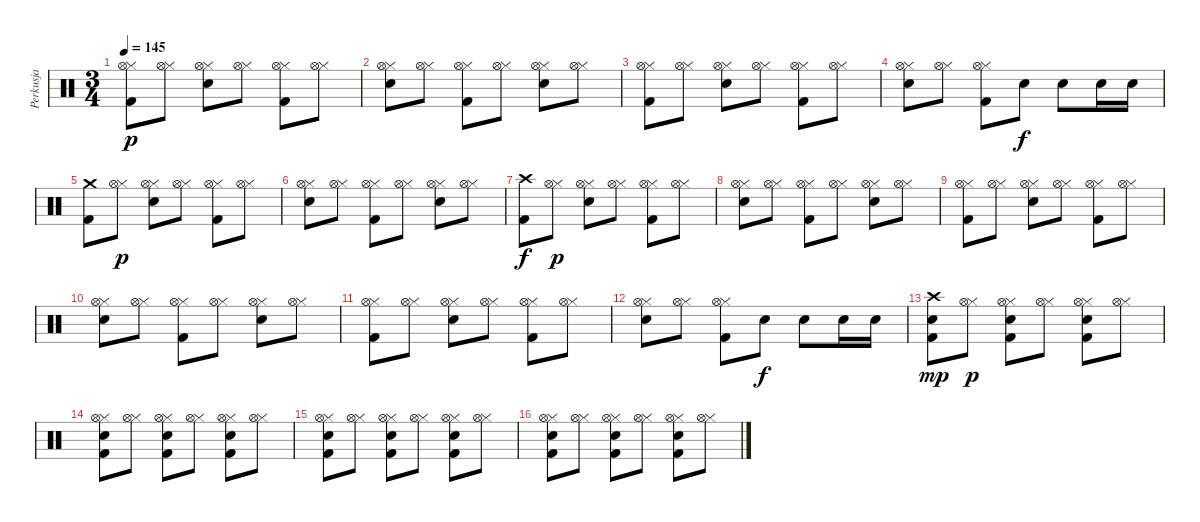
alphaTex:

\track ("Perkusja" "Perkusja") {instrument percussion}
\staff {score}
\articulation defaults
\ts (3 4)
\tempo 145
\clef neutral
\ks c
("Kick (hit) 2" "Hi-Hat (closed)" "Hi-Hat (open)").8{dy p} ("Hi-Hat (closed)" "Hi-Hat (open)").8 ("Electric Snare (hit)" "Hi-Hat (closed)" "Hi-Hat (open)").8 ("Hi-Hat (closed)" "Hi-Hat (open)").8 ("Kick (hit) 2" "Hi-Hat (closed)" "Hi-Hat (open)").8 ("Hi-Hat (closed)" "Hi-Hat (open)").8 |
("Electric Snare (hit)" "Hi-Hat (closed)" "Hi-Hat (open)").8 ("Hi-Hat (closed)" "Hi-Hat (open)").8 ("Kick (hit) 2" "Hi-Hat (closed)" "Hi-Hat (open)").8 ("Hi-Hat (closed)" "Hi-Hat (open)").8 ("Electric Snare (hit)" "Hi-Hat (closed)" "Hi-Hat (open)").8 ("Hi-Hat (closed)" "Hi-Hat (open)").8 |
("Kick (hit) 2" "Hi-Hat (closed)" "Hi-Hat (open)").8 ("Hi-Hat (closed)" "Hi-Hat (open)").8 ("Electric Snare (hit)" "Hi-Hat (closed)" "Hi-Hat (open)").8 ("Hi-Hat (closed)" "Hi-Hat (open)").8 ("Kick (hit) 2" "Hi-Hat (closed)" "Hi-Hat (open)").8 ("Hi-Hat (closed)" "Hi-Hat (open)").8 |
("Electric Snare (hit)" "Hi-Hat (closed)" "Hi-Hat (open)").8 ("Hi-Hat (closed)" "Hi-Hat (open)").8 ("Kick (hit) 2" "Hi-Hat (closed)" "Hi-Hat (open)").8 "Electric Snare (hit)".8{dy f} "Electric Snare (hit)".8 "Electric Snare (hit)".16 "Electric Snare (hit)".16 |
("Kick (hit) 2" "Crash medium (hit)").8 ("Hi-Hat (closed)" "Hi-Hat (open)").8{dy p} ("Electric Snare (hit)" "Hi-Hat (closed)" "Hi-Hat (open)").8 ("Hi-Hat (closed)" "Hi-Hat (open)").8 ("Kick (hit) 2" "Hi-Hat (closed)" "Hi-Hat (open)").8 ("Hi-Hat (closed)" "Hi-Hat (open)").8 |
("Electric Snare (hit)" "Hi-Hat (closed)" "Hi-Hat (open)").8 ("Hi-Hat (closed)" "Hi-Hat (open)").8 ("Kick (hit) 2" "Hi-Hat (closed)" "Hi-Hat (open)").8 ("Hi-Hat (closed)" "Hi-Hat (open)").8 ("Electric Snare (hit)" "Hi-Hat (closed)" "Hi-Hat (open)").8 ("Hi-Hat (closed)" "Hi-Hat (open)").8 |
("Kick (hit) 2" "Crash high (hit)").8{dy f} ("Hi-Hat (closed)" "Hi-Hat (open)").8{dy p} ("Electric Snare (hit)" "Hi-Hat (closed)" "Hi-Hat (open)").8 ("Hi-Hat (closed)" "Hi-Hat (open)").8 ("Kick (hit) 2" "Hi-Hat (closed)" "Hi-Hat (open)").8 ("Hi-Hat (closed)" "Hi-Hat (open)").8 |
("Electric Snare (hit)" "Hi-Hat (closed)" "Hi-Hat (open)").8 ("Hi-Hat (closed)" "Hi-Hat (open)").8 ("Kick (hit) 2" "Hi-Hat (closed)" "Hi-Hat (open)").8 ("Hi-Hat (closed)" "Hi-Hat (open)").8 ("Electric Snare (hit)" "Hi-Hat (closed)" "Hi-Hat (open)").8 ("Hi-Hat (closed)" "Hi-Hat (open)").8 |
("Kick (hit) 2" "Hi-Hat (closed)" "Hi-Hat (open)").8 ("Hi-Hat (closed)" "Hi-Hat (open)").8 ("Electric Snare (hit)" "Hi-Hat (closed)" "Hi-Hat (open)").8 ("Hi-Hat (closed)" "Hi-Hat (open)").8 ("Kick (hit) 2" "Hi-Hat (closed)" "Hi-Hat (open)").8 ("Hi-Hat (closed)" "Hi-Hat (open)").8 |
("Electric Snare (hit)" "Hi-Hat (closed)" "Hi-Hat (open)").8 ("Hi-Hat (closed)" "Hi-Hat (open)").8 ("Kick (hit) 2" "Hi-Hat (closed)" "Hi-Hat (open)").8 ("Hi-Hat (closed)" "Hi-Hat (open)").8 ("Electric Snare (hit)" "Hi-Hat (closed)" "Hi-Hat (open)").8 ("Hi-Hat (closed)" "Hi-Hat (open)").8 |
("Kick (hit) 2" "Hi-Hat (closed)" "Hi-Hat (open)").8 ("Hi-Hat (closed)" "Hi-Hat (open)").8 ("Electric Snare (hit)" "Hi-Hat (closed)" "Hi-Hat (open)").8 ("Hi-Hat (closed)" "Hi-Hat (open)").8 ("Kick (hit) 2" "Hi-Hat (closed)" "Hi-Hat (open)").8 ("Hi-Hat (closed)" "Hi-Hat (open)").8 |
("Electric Snare (hit)" "Hi-Hat (closed)" "Hi-Hat (open)").8 ("Hi-Hat (closed)" "Hi-Hat (open)").8 ("Kick (hit) 2" "Hi-Hat (closed)" "Hi-Hat (open)").8 "Electric Snare (hit)".8{dy f} "Electric Snare (hit)".8 "Electric Snare (hit)".16 "Electric Snare (hit)".16 |
("Kick (hit) 2" "Electric Snare (hit)" "Crash high (hit)").8{dy mp} ("Hi-Hat (closed)" "Hi-Hat (open)").8{dy p} ("Kick (hit) 2" "Electric Snare (hit)" "Hi-Hat (closed)" "Hi-Hat (open)").8 ("Hi-Hat (closed)" "Hi-Hat (open)").8 ("Kick (hit) 2" "Electric Snare (hit)" "Hi-Hat (closed)" "Hi-Hat (open)").8 ("Hi-Hat (closed)" "Hi-Hat (open)").8 |
("Kick (hit) 2" "Electric Snare (hit)" "Hi-Hat (closed)" "Hi-Hat (open)").8 ("Hi-Hat (closed)" "Hi-Hat (open)").8 ("Kick (hit) 2" "Electric Snare (hit)" "Hi-Hat (closed)" "Hi-Hat (open)").8 ("Hi-Hat (closed)" "Hi-Hat (open)").8 ("Kick (hit) 2" "Electric Snare (hit)" "Hi-Hat (closed)" "Hi-Hat (open)").8 ("Hi-Hat (closed)" "Hi-Hat (open)").8 |
("Kick (hit) 2" "Electric Snare (hit)" "Hi-Hat (closed)" "Hi-Hat (open)").8 ("Hi-Hat (closed)" "Hi-Hat (open)").8 ("Kick (hit) 2" "Electric Snare (hit)" "Hi-Hat (closed)" "Hi-Hat (open)").8 ("Hi-Hat (closed)" "Hi-Hat (open)").8 ("Kick (hit) 2" "Electric Snare (hit)" "Hi-Hat (closed)" "Hi-Hat (open)").8 ("Hi-Hat (closed)" "Hi-Hat (open)").8 |
("Kick (hit) 2" "Electric Snare (hit)" "Hi-Hat (closed)" "Hi-Hat (open)").8 ("Hi-Hat (closed)" "Hi-Hat (open)").8 ("Kick (hit) 2" "Electric Snare (hit)" "Hi-Hat (closed)" "Hi-Hat (open)").8 ("Hi-Hat (closed)" "Hi-Hat (open)").8 ("Kick (hit) 2" "Electric Snare (hit)" "Hi-Hat (closed)" "Hi-Hat (open)").8 ("Hi-Hat (closed)" "Hi-Hat (open)").8
